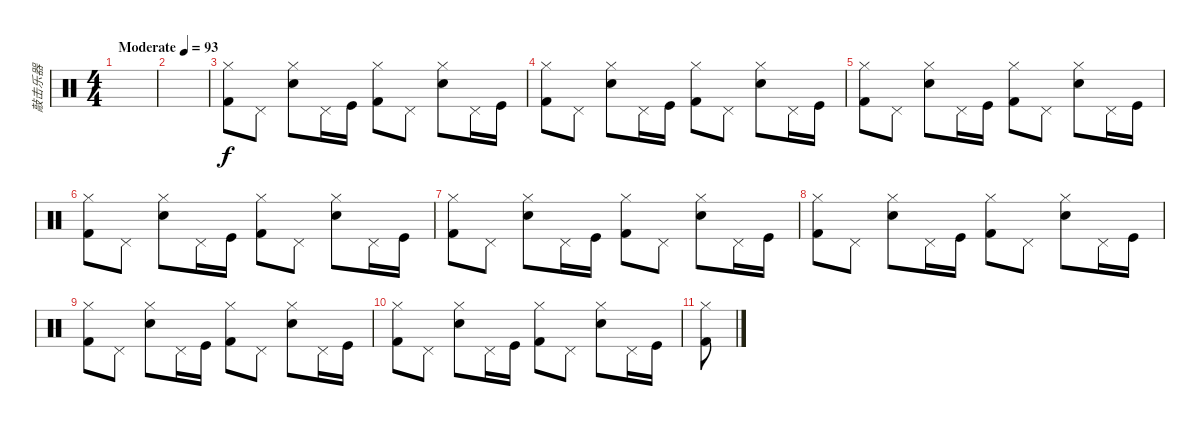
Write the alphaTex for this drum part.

\track ("敲击乐器" "敲击乐器") {instrument percussion}
\staff {score}
\articulation defaults
\ts (4 4)
\tempo (93 "Moderate")
\clef neutral
\ks c
|
|
("Hi-Hat (closed)" "Kick (hit) 2").8 "Pedal Hi-Hat (hit)".8 ("Hi-Hat (closed)" "Electric Snare (hit)").8 "Pedal Hi-Hat (hit)".16 "Kick (hit)".16 ("Hi-Hat (closed)" "Kick (hit) 2").8 "Pedal Hi-Hat (hit)".8 ("Hi-Hat (closed)" "Electric Snare (hit)").8 "Pedal Hi-Hat (hit)".16 "Kick (hit)".16 |
("Hi-Hat (closed)" "Kick (hit) 2").8 "Pedal Hi-Hat (hit)".8 ("Hi-Hat (closed)" "Electric Snare (hit)").8 "Pedal Hi-Hat (hit)".16 "Kick (hit)".16 ("Hi-Hat (closed)" "Kick (hit) 2").8 "Pedal Hi-Hat (hit)".8 ("Hi-Hat (closed)" "Electric Snare (hit)").8 "Pedal Hi-Hat (hit)".16 "Kick (hit)".16 |
("Hi-Hat (closed)" "Kick (hit) 2").8 "Pedal Hi-Hat (hit)".8 ("Hi-Hat (closed)" "Electric Snare (hit)").8 "Pedal Hi-Hat (hit)".16 "Kick (hit)".16 ("Hi-Hat (closed)" "Kick (hit) 2").8 "Pedal Hi-Hat (hit)".8 ("Hi-Hat (closed)" "Electric Snare (hit)").8 "Pedal Hi-Hat (hit)".16 "Kick (hit)".16 |
("Hi-Hat (closed)" "Kick (hit) 2").8 "Pedal Hi-Hat (hit)".8 ("Hi-Hat (closed)" "Electric Snare (hit)").8 "Pedal Hi-Hat (hit)".16 "Kick (hit)".16 ("Hi-Hat (closed)" "Kick (hit) 2").8 "Pedal Hi-Hat (hit)".8 ("Hi-Hat (closed)" "Electric Snare (hit)").8 "Pedal Hi-Hat (hit)".16 "Kick (hit)".16 |
("Hi-Hat (closed)" "Kick (hit) 2").8 "Pedal Hi-Hat (hit)".8 ("Hi-Hat (closed)" "Electric Snare (hit)").8 "Pedal Hi-Hat (hit)".16 "Kick (hit)".16 ("Hi-Hat (closed)" "Kick (hit) 2").8 "Pedal Hi-Hat (hit)".8 ("Hi-Hat (closed)" "Electric Snare (hit)").8 "Pedal Hi-Hat (hit)".16 "Kick (hit)".16 |
("Hi-Hat (closed)" "Kick (hit) 2").8 "Pedal Hi-Hat (hit)".8 ("Hi-Hat (closed)" "Electric Snare (hit)").8 "Pedal Hi-Hat (hit)".16 "Kick (hit)".16 ("Hi-Hat (closed)" "Kick (hit) 2").8 "Pedal Hi-Hat (hit)".8 ("Hi-Hat (closed)" "Electric Snare (hit)").8 "Pedal Hi-Hat (hit)".16 "Kick (hit)".16 |
("Hi-Hat (closed)" "Kick (hit) 2").8 "Pedal Hi-Hat (hit)".8 ("Hi-Hat (closed)" "Electric Snare (hit)").8 "Pedal Hi-Hat (hit)".16 "Kick (hit)".16 ("Hi-Hat (closed)" "Kick (hit) 2").8 "Pedal Hi-Hat (hit)".8 ("Hi-Hat (closed)" "Electric Snare (hit)").8 "Pedal Hi-Hat (hit)".16 "Kick (hit)".16 |
("Hi-Hat (closed)" "Kick (hit) 2").8 "Pedal Hi-Hat (hit)".8 ("Hi-Hat (closed)" "Electric Snare (hit)").8 "Pedal Hi-Hat (hit)".16 "Kick (hit)".16 ("Hi-Hat (closed)" "Kick (hit) 2").8 "Pedal Hi-Hat (hit)".8 ("Hi-Hat (closed)" "Electric Snare (hit)").8 "Pedal Hi-Hat (hit)".16 "Kick (hit)".16 |
("Hi-Hat (closed)" "Kick (hit) 2").8
